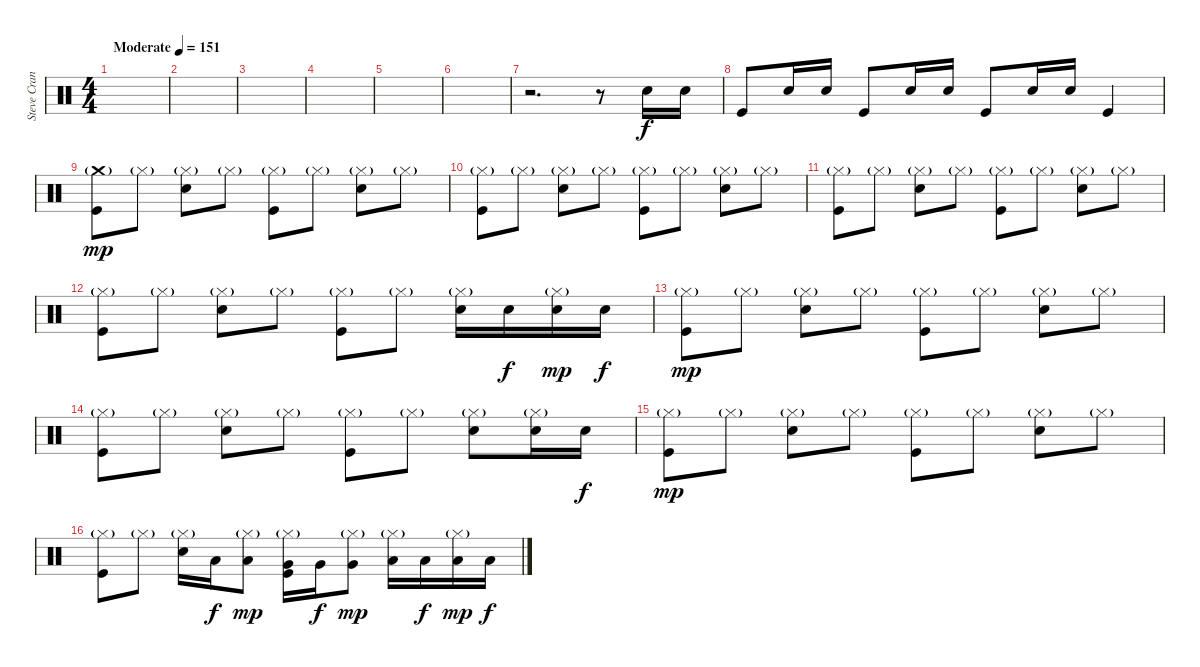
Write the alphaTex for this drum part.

\track ("Steve Crane" "Steve Cran") {instrument percussion}
\staff {score}
\articulation defaults
\ts (4 4)
\tempo (151 "Moderate")
\clef neutral
\ks c
|
|
|
|
|
|
r.2{d} r.8 "Snare (hit) 2".16 "Snare (hit) 2".16 |
"Kick (hit)".8 "Snare (hit) 2".16 "Snare (hit) 2".16 "Kick (hit)".8 "Snare (hit) 2".16 "Snare (hit) 2".16 "Kick (hit)".8 "Snare (hit) 2".16 "Snare (hit) 2".16 "Kick (hit)".4 |
("Crash medium (hit)"{g} "Kick (hit)").8{dy mp} "Hi-Hat (closed)"{g}.8 ("Hi-Hat (closed)"{g} "Snare (hit) 2").8 "Hi-Hat (closed)"{g}.8 ("Hi-Hat (closed)"{g} "Kick (hit)").8 "Hi-Hat (closed)"{g}.8 ("Hi-Hat (closed)"{g} "Snare (hit) 2").8 "Hi-Hat (closed)"{g}.8 |
("Hi-Hat (closed)"{g} "Kick (hit)").8 "Hi-Hat (closed)"{g}.8 ("Hi-Hat (closed)"{g} "Snare (hit) 2").8 "Hi-Hat (closed)"{g}.8 ("Hi-Hat (closed)"{g} "Kick (hit)").8 "Hi-Hat (closed)"{g}.8 ("Hi-Hat (closed)"{g} "Snare (hit) 2").8 "Hi-Hat (closed)"{g}.8 |
("Hi-Hat (closed)"{g} "Kick (hit)").8 "Hi-Hat (closed)"{g}.8 ("Hi-Hat (closed)"{g} "Snare (hit) 2").8 "Hi-Hat (closed)"{g}.8 ("Hi-Hat (closed)"{g} "Kick (hit)").8 "Hi-Hat (closed)"{g}.8 ("Hi-Hat (closed)"{g} "Snare (hit) 2").8 "Hi-Hat (closed)"{g}.8 |
("Hi-Hat (closed)"{g} "Kick (hit)").8 "Hi-Hat (closed)"{g}.8 ("Hi-Hat (closed)"{g} "Snare (hit) 2").8 "Hi-Hat (closed)"{g}.8 ("Hi-Hat (closed)"{g} "Kick (hit)").8 "Hi-Hat (closed)"{g}.8 ("Hi-Hat (closed)"{g} "Snare (hit) 2").16 "Snare (hit) 2".16{dy f} ("Hi-Hat (closed)"{g} "Snare (hit) 2").16{dy mp} "Snare (hit) 2".16{dy f} |
("Hi-Hat (closed)"{g} "Kick (hit)").8{dy mp} "Hi-Hat (closed)"{g}.8 ("Hi-Hat (closed)"{g} "Snare (hit) 2").8 "Hi-Hat (closed)"{g}.8 ("Hi-Hat (closed)"{g} "Kick (hit)").8 "Hi-Hat (closed)"{g}.8 ("Hi-Hat (closed)"{g} "Snare (hit) 2").8 "Hi-Hat (closed)"{g}.8 |
("Hi-Hat (closed)"{g} "Kick (hit)").8 "Hi-Hat (closed)"{g}.8 ("Hi-Hat (closed)"{g} "Snare (hit) 2").8 "Hi-Hat (closed)"{g}.8 ("Hi-Hat (closed)"{g} "Kick (hit)").8 "Hi-Hat (closed)"{g}.8 ("Hi-Hat (closed)"{g} "Snare (hit) 2").8 ("Hi-Hat (closed)"{g} "Snare (hit) 2").16 "Snare (hit) 2".16{dy f} |
("Hi-Hat (closed)"{g} "Kick (hit)").8{dy mp} "Hi-Hat (closed)"{g}.8 ("Hi-Hat (closed)"{g} "Snare (hit) 2").8 "Hi-Hat (closed)"{g}.8 ("Hi-Hat (closed)"{g} "Kick (hit)").8 "Hi-Hat (closed)"{g}.8 ("Hi-Hat (closed)"{g} "Snare (hit) 2").8 "Hi-Hat (closed)"{g}.8 |
("Hi-Hat (closed)"{g} "Kick (hit)").8 "Hi-Hat (closed)"{g}.8 ("Hi-Hat (closed)"{g} "Snare (hit) 2").16 "Low Tom (hit)".16{dy f} ("Hi-Hat (closed)"{g} "Low Tom (hit)").8{dy mp} ("Hi-Hat (closed)"{g} "Very Low Tom (hit)" "Kick (hit)").16 "Very Low Tom (hit)".16{dy f} ("Hi-Hat (closed)"{g} "Very Low Tom (hit)").8{dy mp} ("Hi-Hat (closed)"{g} "Low Floor Tom (hit)").16 "Low Floor Tom (hit)".16{dy f} ("Hi-Hat (closed)"{g} "Low Floor Tom (hit)").16{dy mp} "Low Floor Tom (hit)".16{dy f}
